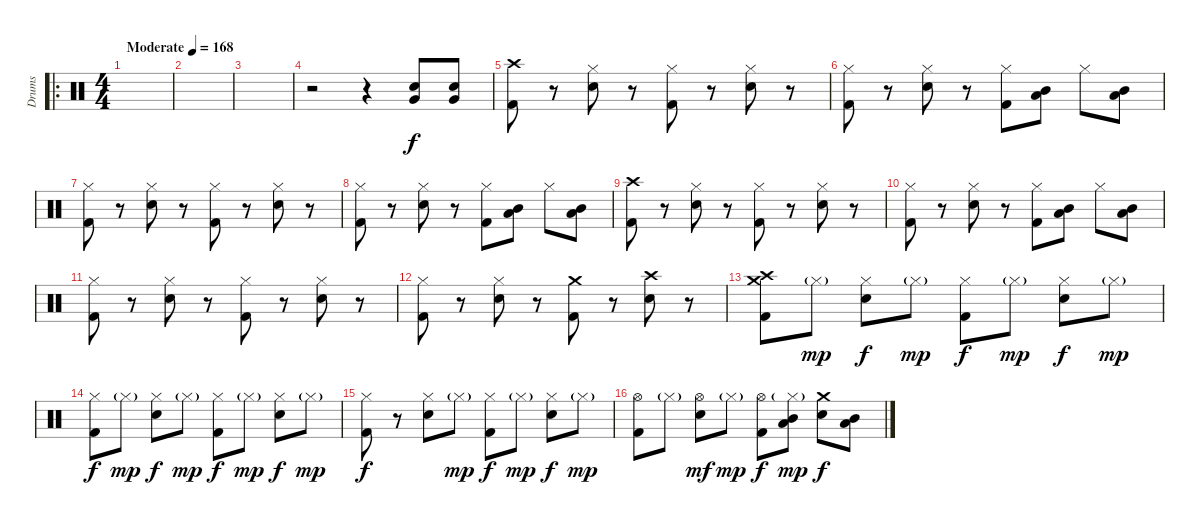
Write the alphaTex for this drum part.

\track ("Drums" "Drums") {instrument percussion}
\staff {score}
\articulation defaults
\ro
\ts (4 4)
\tempo (168 "Moderate")
\clef neutral
\ks c
|
|
|
r.2 r.4 ("Electric Snare (hit)" "Very Low Tom (hit)").8 ("Electric Snare (hit)" "Very Low Tom (hit)").8 |
("Crash high (hit)" "Kick (hit) 2").8 r.8 ("Hi-Hat (closed)" "Electric Snare (hit)").8 r.8 ("Hi-Hat (closed)" "Kick (hit) 2").8 r.8 ("Hi-Hat (closed)" "Electric Snare (hit)").8 r.8 |
("Hi-Hat (closed)" "Kick (hit) 2").8 r.8 ("Hi-Hat (closed)" "Electric Snare (hit)").8 r.8 ("Hi-Hat (closed)" "Kick (hit) 2").8 ("Low Tom (hit)" "Mid Tom (hit)").8 "Hi-Hat (closed)".8 ("Mid Tom (hit)" "Low Tom (hit)").8 |
("Hi-Hat (closed)" "Kick (hit) 2").8 r.8 ("Hi-Hat (closed)" "Electric Snare (hit)").8 r.8 ("Hi-Hat (closed)" "Kick (hit) 2").8 r.8 ("Hi-Hat (closed)" "Electric Snare (hit)").8 r.8 |
("Hi-Hat (closed)" "Kick (hit) 2").8 r.8 ("Hi-Hat (closed)" "Electric Snare (hit)").8 r.8 ("Hi-Hat (closed)" "Kick (hit) 2").8 ("Low Tom (hit)" "Mid Tom (hit)").8 "Hi-Hat (closed)".8 ("Low Tom (hit)" "Mid Tom (hit)").8 |
("Crash high (hit)" "Kick (hit) 2").8 r.8 ("Hi-Hat (closed)" "Electric Snare (hit)").8 r.8 ("Hi-Hat (closed)" "Kick (hit) 2").8 r.8 ("Hi-Hat (closed)" "Electric Snare (hit)").8 r.8 |
("Hi-Hat (closed)" "Kick (hit) 2").8 r.8 ("Hi-Hat (closed)" "Electric Snare (hit)").8 r.8 ("Hi-Hat (closed)" "Kick (hit) 2").8 ("Mid Tom (hit)" "Low Tom (hit)").8 "Hi-Hat (closed)".8 ("Mid Tom (hit)" "Low Tom (hit)").8 |
("Hi-Hat (closed)" "Kick (hit) 2").8 r.8 ("Hi-Hat (closed)" "Electric Snare (hit)").8 r.8 ("Hi-Hat (closed)" "Kick (hit) 2").8 r.8 ("Hi-Hat (closed)" "Electric Snare (hit)").8 r.8 |
("Hi-Hat (closed)" "Kick (hit) 2").8 r.8 ("Hi-Hat (closed)" "Electric Snare (hit)").8 r.8 ("Crash medium (hit)" "Kick (hit) 2").8 r.8 ("Crash high (hit)" "Electric Snare (hit)").8 r.8 |
("Crash high (hit)" "Crash medium (hit)" "Kick (hit) 2").8 "Hi-Hat (closed)"{g}.8{dy mp} ("Hi-Hat (closed)" "Electric Snare (hit)").8{dy f} "Hi-Hat (closed)"{g}.8{dy mp} ("Hi-Hat (closed)" "Kick (hit) 2").8{dy f} "Hi-Hat (closed)"{g}.8{dy mp} ("Hi-Hat (closed)" "Electric Snare (hit)").8{dy f} "Hi-Hat (closed)"{g}.8{dy mp} |
("Hi-Hat (closed)" "Kick (hit) 2").8{dy f} "Hi-Hat (closed)"{g}.8{dy mp} ("Hi-Hat (closed)" "Electric Snare (hit)").8{dy f} "Hi-Hat (closed)"{g}.8{dy mp} ("Hi-Hat (closed)" "Kick (hit) 2").8{dy f} "Hi-Hat (closed)"{g}.8{dy mp} ("Hi-Hat (closed)" "Electric Snare (hit)").8{dy f} "Hi-Hat (closed)"{g}.8{dy mp} |
("Hi-Hat (closed)" "Kick (hit) 2").8{dy f} r.8 ("Hi-Hat (closed)" "Electric Snare (hit)").8 "Hi-Hat (closed)"{g}.8{dy mp} ("Hi-Hat (closed)" "Kick (hit) 2").8{dy f} "Hi-Hat (closed)"{g}.8{dy mp} ("Hi-Hat (closed)" "Electric Snare (hit)").8{dy f} "Hi-Hat (closed)"{g}.8{dy mp} |
("Hi-Hat (open)" "Kick (hit) 2").8 "Hi-Hat (closed)"{g}.8 ("Hi-Hat (open)" "Electric Snare (hit)").8{dy mf} "Hi-Hat (closed)"{g}.8{dy mp} ("Hi-Hat (open)" "Kick (hit) 2").8{dy f} ("Hi-Hat (closed)"{g} "Low Tom (hit)" "Mid Tom (hit)").8{dy mp} ("Crash medium (hit)" "Electric Snare (hit)").8{dy f} ("Mid Tom (hit)" "Low Tom (hit)").8
